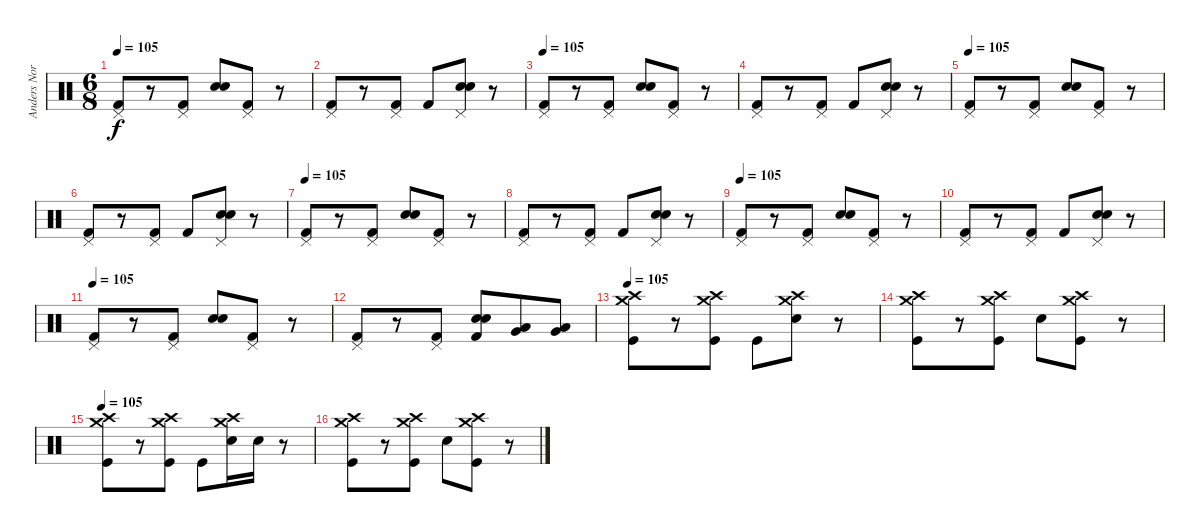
\track ("Anders Nordin" "Anders Nor") {instrument percussion}
\staff {score}
\articulation defaults
\ts (6 8)
\tempo 105
\clef neutral
\ks c
("Pedal Hi-Hat (hit)" "Kick (hit) 2").8{dy f} r.8 ("Pedal Hi-Hat (hit)" "Kick (hit) 2").8 ("Electric Snare (hit)" "Snare (hit) 2").8 ("Pedal Hi-Hat (hit)" "Kick (hit) 2").8 r.8 |
("Pedal Hi-Hat (hit)" "Kick (hit) 2").8 r.8 ("Pedal Hi-Hat (hit)" "Kick (hit) 2").8 "Kick (hit) 2".8 ("Pedal Hi-Hat (hit)" "Electric Snare (hit)" "Snare (hit) 2").8 r.8 |
\tempo 105
("Pedal Hi-Hat (hit)" "Kick (hit) 2").8 r.8 ("Pedal Hi-Hat (hit)" "Kick (hit) 2").8 ("Electric Snare (hit)" "Snare (hit) 2").8 ("Pedal Hi-Hat (hit)" "Kick (hit) 2").8 r.8 |
("Pedal Hi-Hat (hit)" "Kick (hit) 2").8 r.8 ("Pedal Hi-Hat (hit)" "Kick (hit) 2").8 "Kick (hit) 2".8 ("Pedal Hi-Hat (hit)" "Electric Snare (hit)" "Snare (hit) 2").8 r.8 |
\tempo 105
("Pedal Hi-Hat (hit)" "Kick (hit) 2").8 r.8 ("Pedal Hi-Hat (hit)" "Kick (hit) 2").8 ("Electric Snare (hit)" "Snare (hit) 2").8 ("Pedal Hi-Hat (hit)" "Kick (hit) 2").8 r.8 |
("Pedal Hi-Hat (hit)" "Kick (hit) 2").8 r.8 ("Pedal Hi-Hat (hit)" "Kick (hit) 2").8 "Kick (hit) 2".8 ("Pedal Hi-Hat (hit)" "Electric Snare (hit)" "Snare (hit) 2").8 r.8 |
\tempo 105
("Pedal Hi-Hat (hit)" "Kick (hit) 2").8 r.8 ("Pedal Hi-Hat (hit)" "Kick (hit) 2").8 ("Electric Snare (hit)" "Snare (hit) 2").8 ("Pedal Hi-Hat (hit)" "Kick (hit) 2").8 r.8 |
("Pedal Hi-Hat (hit)" "Kick (hit) 2").8 r.8 ("Pedal Hi-Hat (hit)" "Kick (hit) 2").8 "Kick (hit) 2".8 ("Pedal Hi-Hat (hit)" "Electric Snare (hit)" "Snare (hit) 2").8 r.8 |
\tempo 105
("Pedal Hi-Hat (hit)" "Kick (hit) 2").8 r.8 ("Pedal Hi-Hat (hit)" "Kick (hit) 2").8 ("Electric Snare (hit)" "Snare (hit) 2").8 ("Pedal Hi-Hat (hit)" "Kick (hit) 2").8 r.8 |
("Pedal Hi-Hat (hit)" "Kick (hit) 2").8 r.8 ("Pedal Hi-Hat (hit)" "Kick (hit) 2").8 "Kick (hit) 2".8 ("Pedal Hi-Hat (hit)" "Electric Snare (hit)" "Snare (hit) 2").8 r.8 |
\tempo 105
("Pedal Hi-Hat (hit)" "Kick (hit) 2").8 r.8 ("Pedal Hi-Hat (hit)" "Kick (hit) 2").8 ("Electric Snare (hit)" "Snare (hit) 2").8 ("Pedal Hi-Hat (hit)" "Kick (hit) 2").8 r.8 |
("Pedal Hi-Hat (hit)" "Kick (hit) 2").8 r.8 ("Pedal Hi-Hat (hit)" "Kick (hit) 2").8 ("Snare (hit) 2" "Electric Snare (hit)" "Kick (hit) 2").8 ("Low Tom (hit)" "Very Low Tom (hit)").8 ("Very Low Tom (hit)" "Low Floor Tom (hit)").8 |
\tempo 105
("Crash high (hit)" "Crash medium (hit)" "Kick (hit)").8 r.8 ("Crash high (hit)" "Crash medium (hit)" "Kick (hit)").8 "Kick (hit)".8 ("Crash high (hit)" "Crash medium (hit)" "Electric Snare (hit)").8 r.8 |
("Crash high (hit)" "Crash medium (hit)" "Kick (hit)").8 r.8 ("Crash high (hit)" "Crash medium (hit)" "Kick (hit)").8 "Electric Snare (hit)".8 ("Crash high (hit)" "Crash medium (hit)" "Kick (hit)").8 r.8 |
\tempo 105
("Crash high (hit)" "Crash medium (hit)" "Kick (hit)").8 r.8 ("Crash high (hit)" "Crash medium (hit)" "Kick (hit)").8 "Kick (hit)".8 ("Crash high (hit)" "Crash medium (hit)" "Electric Snare (hit)").16 "Electric Snare (hit)".16 r.8 |
("Crash high (hit)" "Crash medium (hit)" "Kick (hit)").8 r.8 ("Crash high (hit)" "Crash medium (hit)" "Kick (hit)").8 "Electric Snare (hit)".8 ("Crash high (hit)" "Crash medium (hit)" "Kick (hit)").8 r.8
